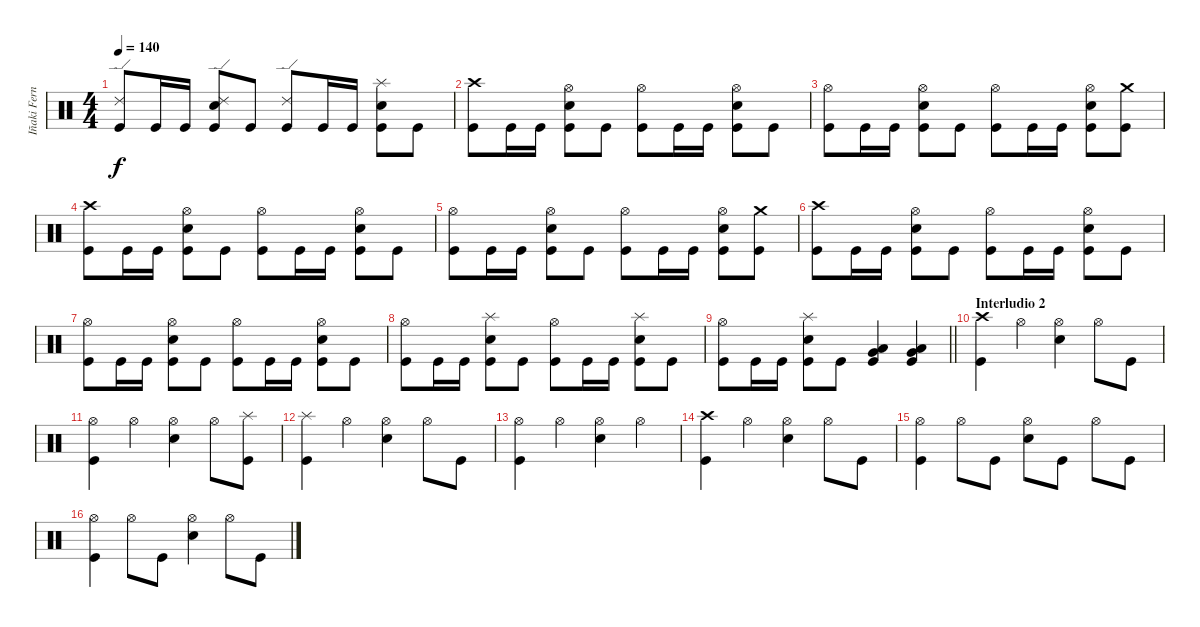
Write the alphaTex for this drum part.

\track ("Iñaki Fernández" "Iñaki Fern") {instrument percussion}
\staff {score}
\articulation defaults
\ts (4 4)
\tempo 140
\clef neutral
\ks c
("Ride (edge) 2" "Kick (hit)").8{dy f} "Kick (hit)".16 "Kick (hit)".16 ("Ride (edge) 2" "Snare (hit) 2" "Kick (hit)").8 "Kick (hit)".8 ("Ride (edge) 2" "Kick (hit)").8 "Kick (hit)".16 "Kick (hit)".16 ("Snare (hit) 2" "Splash (hit)" "Kick (hit)").8 "Kick (hit)".8 |
("Crash high (hit)" "Kick (hit)").8 "Kick (hit)".16 "Kick (hit)".16 ("Hi-Hat (open)" "Snare (hit) 2" "Kick (hit)").8 "Kick (hit)".8 ("Hi-Hat (open)" "Kick (hit)").8 "Kick (hit)".16 "Kick (hit)".16 ("Hi-Hat (open)" "Snare (hit) 2" "Kick (hit)").8 "Kick (hit)".8 |
("Hi-Hat (open)" "Kick (hit)").8 "Kick (hit)".16 "Kick (hit)".16 ("Hi-Hat (open)" "Snare (hit) 2" "Kick (hit)").8 "Kick (hit)".8 ("Hi-Hat (open)" "Kick (hit)").8 "Kick (hit)".16 "Kick (hit)".16 ("Hi-Hat (open)" "Snare (hit) 2" "Kick (hit)").8 ("Crash medium (hit)" "Kick (hit)").8 |
("Crash high (hit)" "Kick (hit)").8 "Kick (hit)".16 "Kick (hit)".16 ("Hi-Hat (open)" "Snare (hit) 2" "Kick (hit)").8 "Kick (hit)".8 ("Hi-Hat (open)" "Kick (hit)").8 "Kick (hit)".16 "Kick (hit)".16 ("Hi-Hat (open)" "Snare (hit) 2" "Kick (hit)").8 "Kick (hit)".8 |
("Hi-Hat (open)" "Kick (hit)").8 "Kick (hit)".16 "Kick (hit)".16 ("Hi-Hat (open)" "Snare (hit) 2" "Kick (hit)").8 "Kick (hit)".8 ("Hi-Hat (open)" "Kick (hit)").8 "Kick (hit)".16 "Kick (hit)".16 ("Hi-Hat (open)" "Snare (hit) 2" "Kick (hit)").8 ("Crash medium (hit)" "Kick (hit)").8 |
("Crash high (hit)" "Kick (hit)").8 "Kick (hit)".16 "Kick (hit)".16 ("Hi-Hat (open)" "Snare (hit) 2" "Kick (hit)").8 "Kick (hit)".8 ("Hi-Hat (open)" "Kick (hit)").8 "Kick (hit)".16 "Kick (hit)".16 ("Hi-Hat (open)" "Snare (hit) 2" "Kick (hit)").8 "Kick (hit)".8 |
("Hi-Hat (open)" "Kick (hit)").8 "Kick (hit)".16 "Kick (hit)".16 ("Hi-Hat (open)" "Snare (hit) 2" "Kick (hit)").8 "Kick (hit)".8 ("Hi-Hat (open)" "Kick (hit)").8 "Kick (hit)".16 "Kick (hit)".16 ("Hi-Hat (open)" "Snare (hit) 2" "Kick (hit)").8 "Kick (hit)".8 |
("Hi-Hat (open)" "Kick (hit)").8 "Kick (hit)".16 "Kick (hit)".16 ("Snare (hit) 2" "Splash (hit)" "Kick (hit)").8 "Kick (hit)".8 ("Hi-Hat (open)" "Kick (hit)").8 "Kick (hit)".16 "Kick (hit)".16 ("Snare (hit) 2" "Splash (hit)" "Kick (hit)").8 "Kick (hit)".8 |
\barLineRight lightlight
("Hi-Hat (open)" "Kick (hit)").8 "Kick (hit)".16 "Kick (hit)".16 ("Snare (hit) 2" "Splash (hit)" "Kick (hit)").8 "Kick (hit)".8 ("Low Tom (hit)" "Very Low Tom (hit)" "Kick (hit)").4 ("Very Low Tom (hit)" "Low Floor Tom (hit)" "Kick (hit)").4 |
\section ("" "Interludio 2")
("Crash high (hit)" "Kick (hit)").4 "Hi-Hat (open)".4 ("Hi-Hat (open)" "Snare (hit) 2").4 "Hi-Hat (open)".8 "Kick (hit)".8 |
("Hi-Hat (open)" "Kick (hit)").4 "Hi-Hat (open)".4 ("Hi-Hat (open)" "Snare (hit) 2").4 "Hi-Hat (open)".8 ("Splash (hit)" "Kick (hit)").8 |
("Splash (hit)" "Kick (hit)").4 "Hi-Hat (open)".4 ("Hi-Hat (open)" "Snare (hit) 2").4 "Hi-Hat (open)".8 "Kick (hit)".8 |
("Hi-Hat (open)" "Kick (hit)").4 "Hi-Hat (open)".4 ("Hi-Hat (open)" "Snare (hit) 2").4 "Hi-Hat (open)".4 |
("Crash high (hit)" "Kick (hit)").4 "Hi-Hat (open)".4 ("Hi-Hat (open)" "Snare (hit) 2").4 "Hi-Hat (open)".8 "Kick (hit)".8 |
("Hi-Hat (open)" "Kick (hit)").4 "Hi-Hat (open)".8 "Kick (hit)".8 ("Hi-Hat (open)" "Snare (hit) 2").8 "Kick (hit)".8 "Hi-Hat (open)".8 "Kick (hit)".8 |
("Hi-Hat (open)" "Kick (hit)").4 "Hi-Hat (open)".8 "Kick (hit)".8 ("Hi-Hat (open)" "Snare (hit) 2").4 "Hi-Hat (open)".8 "Kick (hit)".8
